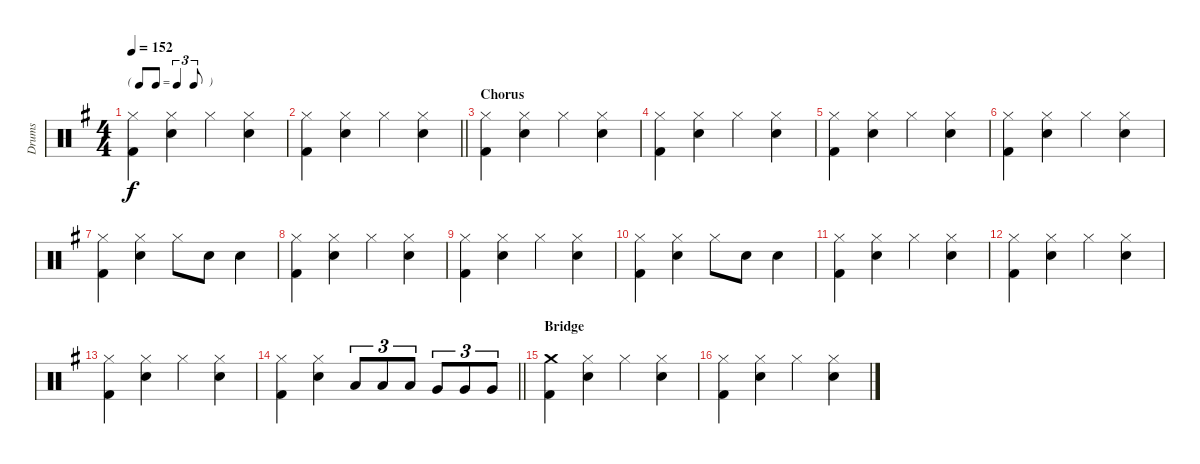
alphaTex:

\track ("Drums" "Drums") {instrument percussion}
\staff {score}
\articulation defaults
\ts (4 4)
\tf triplet8th
\tempo 152
\clef neutral
\ks g
("Hi-Hat (closed)" "Kick (hit) 2").4{dy f} ("Hi-Hat (closed)" "Snare (hit) 2").4 "Hi-Hat (closed)".4 ("Hi-Hat (closed)" "Snare (hit) 2").4 |
\barLineRight lightlight
("Hi-Hat (closed)" "Kick (hit) 2").4 ("Hi-Hat (closed)" "Snare (hit) 2").4 "Hi-Hat (closed)".4 ("Hi-Hat (closed)" "Snare (hit) 2").4 |
\section ("" "Chorus")
("Hi-Hat (closed)" "Kick (hit) 2").4 ("Hi-Hat (closed)" "Snare (hit) 2").4 "Hi-Hat (closed)".4 ("Hi-Hat (closed)" "Snare (hit) 2").4 |
("Hi-Hat (closed)" "Kick (hit) 2").4 ("Hi-Hat (closed)" "Snare (hit) 2").4 "Hi-Hat (closed)".4 ("Hi-Hat (closed)" "Snare (hit) 2").4 |
("Hi-Hat (closed)" "Kick (hit) 2").4 ("Hi-Hat (closed)" "Snare (hit) 2").4 "Hi-Hat (closed)".4 ("Hi-Hat (closed)" "Snare (hit) 2").4 |
("Hi-Hat (closed)" "Kick (hit) 2").4 ("Hi-Hat (closed)" "Snare (hit) 2").4 "Hi-Hat (closed)".4 ("Hi-Hat (closed)" "Snare (hit) 2").4 |
("Hi-Hat (closed)" "Kick (hit) 2").4 ("Hi-Hat (closed)" "Snare (hit) 2").4 "Hi-Hat (closed)".8 "Snare (hit) 2".8 "Snare (hit) 2".4 |
("Hi-Hat (closed)" "Kick (hit) 2").4 ("Hi-Hat (closed)" "Snare (hit) 2").4 "Hi-Hat (closed)".4 ("Hi-Hat (closed)" "Snare (hit) 2").4 |
("Hi-Hat (closed)" "Kick (hit) 2").4 ("Hi-Hat (closed)" "Snare (hit) 2").4 "Hi-Hat (closed)".4 ("Hi-Hat (closed)" "Snare (hit) 2").4 |
("Hi-Hat (closed)" "Kick (hit) 2").4 ("Hi-Hat (closed)" "Snare (hit) 2").4 "Hi-Hat (closed)".8 "Snare (hit) 2".8 "Snare (hit) 2".4 |
("Hi-Hat (closed)" "Kick (hit) 2").4 ("Hi-Hat (closed)" "Snare (hit) 2").4 "Hi-Hat (closed)".4 ("Hi-Hat (closed)" "Snare (hit) 2").4 |
("Hi-Hat (closed)" "Kick (hit) 2").4 ("Hi-Hat (closed)" "Snare (hit) 2").4 "Hi-Hat (closed)".4 ("Hi-Hat (closed)" "Snare (hit) 2").4 |
("Hi-Hat (closed)" "Kick (hit) 2").4 ("Hi-Hat (closed)" "Snare (hit) 2").4 "Hi-Hat (closed)".4 ("Hi-Hat (closed)" "Snare (hit) 2").4 |
\barLineRight lightlight
("Hi-Hat (closed)" "Kick (hit) 2").4 ("Hi-Hat (closed)" "Snare (hit) 2").4 "Low Tom (hit)".8{tu (3 2)} "Low Tom (hit)".8{tu (3 2)} "Low Tom (hit)".8{tu (3 2)} "Very Low Tom (hit)".8{tu (3 2)} "Very Low Tom (hit)".8{tu (3 2)} "Very Low Tom (hit)".8{tu (3 2)} |
\section ("" "Bridge")
("Crash medium (hit)" "Kick (hit) 2").4 ("Hi-Hat (closed)" "Snare (hit) 2").4 "Hi-Hat (closed)".4 ("Hi-Hat (closed)" "Snare (hit) 2").4 |
("Hi-Hat (closed)" "Kick (hit) 2").4 ("Hi-Hat (closed)" "Snare (hit) 2").4 "Hi-Hat (closed)".4 ("Hi-Hat (closed)" "Snare (hit) 2").4
